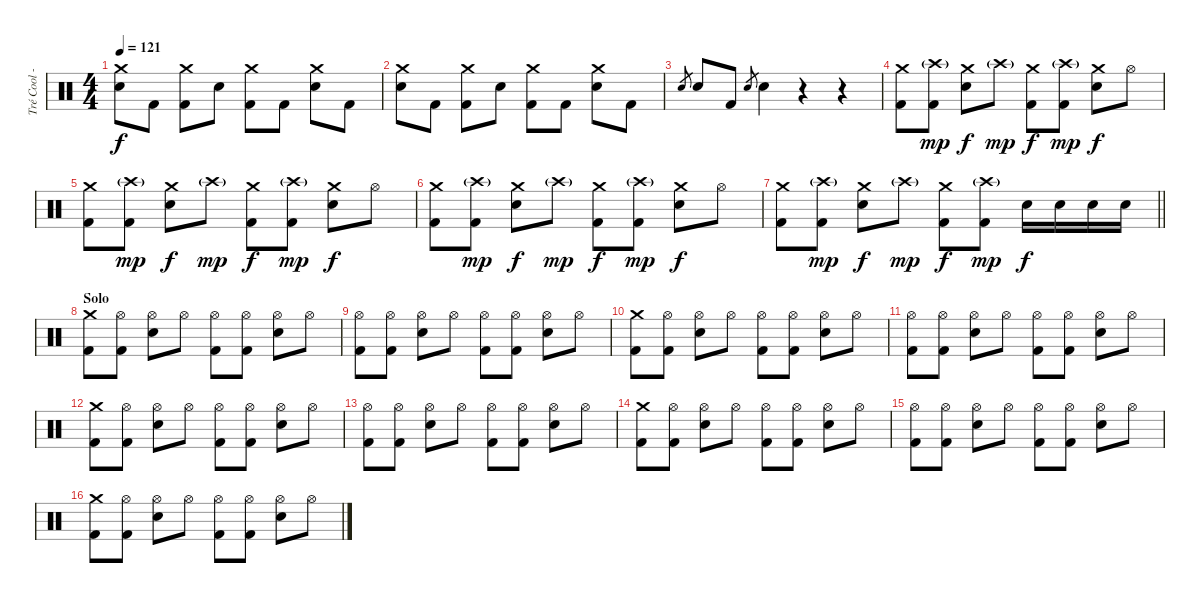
\track ("Tré Cool - Drums" "Tré Cool -") {instrument percussion}
\staff {score}
\articulation defaults
\ts (4 4)
\tempo 121
\clef neutral
\ks c
("Crash medium (hit)" "Electric Snare (hit)").8{dy f} "Kick (hit) 2".8 ("Crash medium (hit)" "Kick (hit) 2").8 "Electric Snare (hit)".8 ("Crash medium (hit)" "Kick (hit) 2").8 "Kick (hit) 2".8 ("Crash medium (hit)" "Electric Snare (hit)").8 "Kick (hit) 2".8 |
("Crash medium (hit)" "Electric Snare (hit)").8 "Kick (hit) 2".8 ("Crash medium (hit)" "Kick (hit) 2").8 "Electric Snare (hit)".8 ("Crash medium (hit)" "Kick (hit) 2").8 "Kick (hit) 2".8 ("Crash medium (hit)" "Electric Snare (hit)").8 "Kick (hit) 2".8 |
"Electric Snare (hit)".8{gr} "Electric Snare (hit)".8 "Kick (hit) 2".8 "Electric Snare (hit)".8{gr} "Electric Snare (hit)".4 r.4 r.4 |
("Crash medium (hit)" "Kick (hit) 2").8 ("Crash high (hit)"{g} "Kick (hit) 2").8{dy mp} ("Crash medium (hit)" "Electric Snare (hit)").8{dy f} "Crash high (hit)"{g}.8{dy mp} ("Crash medium (hit)" "Kick (hit) 2").8{dy f} ("Crash high (hit)"{g} "Kick (hit) 2").8{dy mp} ("Crash medium (hit)" "Electric Snare (hit)").8{dy f} "Hi-Hat (open)".8 |
("Crash medium (hit)" "Kick (hit) 2").8 ("Crash high (hit)"{g} "Kick (hit) 2").8{dy mp} ("Crash medium (hit)" "Electric Snare (hit)").8{dy f} "Crash high (hit)"{g}.8{dy mp} ("Crash medium (hit)" "Kick (hit) 2").8{dy f} ("Crash high (hit)"{g} "Kick (hit) 2").8{dy mp} ("Crash medium (hit)" "Electric Snare (hit)").8{dy f} "Hi-Hat (open)".8 |
("Crash medium (hit)" "Kick (hit) 2").8 ("Crash high (hit)"{g} "Kick (hit) 2").8{dy mp} ("Crash medium (hit)" "Electric Snare (hit)").8{dy f} "Crash high (hit)"{g}.8{dy mp} ("Crash medium (hit)" "Kick (hit) 2").8{dy f} ("Crash high (hit)"{g} "Kick (hit) 2").8{dy mp} ("Crash medium (hit)" "Electric Snare (hit)").8{dy f} "Hi-Hat (open)".8 |
\barLineRight lightlight
("Crash medium (hit)" "Kick (hit) 2").8 ("Crash high (hit)"{g} "Kick (hit) 2").8{dy mp} ("Crash medium (hit)" "Electric Snare (hit)").8{dy f} "Crash high (hit)"{g}.8{dy mp} ("Crash medium (hit)" "Kick (hit) 2").8{dy f} ("Crash high (hit)"{g} "Kick (hit) 2").8{dy mp} "Electric Snare (hit)".16{dy f} "Electric Snare (hit)".16 "Electric Snare (hit)".16 "Electric Snare (hit)".16 |
\section ("" "Solo")
("Crash medium (hit)" "Kick (hit) 2").8 ("Hi-Hat (open)" "Kick (hit) 2").8 ("Hi-Hat (open)" "Electric Snare (hit)").8 "Hi-Hat (open)".8 ("Hi-Hat (open)" "Kick (hit) 2").8 ("Hi-Hat (open)" "Kick (hit) 2").8 ("Hi-Hat (open)" "Electric Snare (hit)").8 "Hi-Hat (open)".8 |
("Hi-Hat (open)" "Kick (hit) 2").8 ("Hi-Hat (open)" "Kick (hit) 2").8 ("Hi-Hat (open)" "Electric Snare (hit)").8 "Hi-Hat (open)".8 ("Hi-Hat (open)" "Kick (hit) 2").8 ("Hi-Hat (open)" "Kick (hit) 2").8 ("Hi-Hat (open)" "Electric Snare (hit)").8 "Hi-Hat (open)".8 |
("Crash medium (hit)" "Kick (hit) 2").8 ("Hi-Hat (open)" "Kick (hit) 2").8 ("Hi-Hat (open)" "Electric Snare (hit)").8 "Hi-Hat (open)".8 ("Hi-Hat (open)" "Kick (hit) 2").8 ("Hi-Hat (open)" "Kick (hit) 2").8 ("Hi-Hat (open)" "Electric Snare (hit)").8 "Hi-Hat (open)".8 |
("Hi-Hat (open)" "Kick (hit) 2").8 ("Hi-Hat (open)" "Kick (hit) 2").8 ("Hi-Hat (open)" "Electric Snare (hit)").8 "Hi-Hat (open)".8 ("Hi-Hat (open)" "Kick (hit) 2").8 ("Hi-Hat (open)" "Kick (hit) 2").8 ("Hi-Hat (open)" "Electric Snare (hit)").8 "Hi-Hat (open)".8 |
("Crash medium (hit)" "Kick (hit) 2").8 ("Hi-Hat (open)" "Kick (hit) 2").8 ("Hi-Hat (open)" "Electric Snare (hit)").8 "Hi-Hat (open)".8 ("Hi-Hat (open)" "Kick (hit) 2").8 ("Hi-Hat (open)" "Kick (hit) 2").8 ("Hi-Hat (open)" "Electric Snare (hit)").8 "Hi-Hat (open)".8 |
("Hi-Hat (open)" "Kick (hit) 2").8 ("Hi-Hat (open)" "Kick (hit) 2").8 ("Hi-Hat (open)" "Electric Snare (hit)").8 "Hi-Hat (open)".8 ("Hi-Hat (open)" "Kick (hit) 2").8 ("Hi-Hat (open)" "Kick (hit) 2").8 ("Hi-Hat (open)" "Electric Snare (hit)").8 "Hi-Hat (open)".8 |
("Crash medium (hit)" "Kick (hit) 2").8 ("Hi-Hat (open)" "Kick (hit) 2").8 ("Hi-Hat (open)" "Electric Snare (hit)").8 "Hi-Hat (open)".8 ("Hi-Hat (open)" "Kick (hit) 2").8 ("Hi-Hat (open)" "Kick (hit) 2").8 ("Hi-Hat (open)" "Electric Snare (hit)").8 "Hi-Hat (open)".8 |
("Hi-Hat (open)" "Kick (hit) 2").8 ("Hi-Hat (open)" "Kick (hit) 2").8 ("Hi-Hat (open)" "Electric Snare (hit)").8 "Hi-Hat (open)".8 ("Hi-Hat (open)" "Kick (hit) 2").8 ("Hi-Hat (open)" "Kick (hit) 2").8 ("Hi-Hat (open)" "Electric Snare (hit)").8 "Hi-Hat (open)".8 |
("Crash medium (hit)" "Kick (hit) 2").8 ("Hi-Hat (open)" "Kick (hit) 2").8 ("Hi-Hat (open)" "Electric Snare (hit)").8 "Hi-Hat (open)".8 ("Hi-Hat (open)" "Kick (hit) 2").8 ("Hi-Hat (open)" "Kick (hit) 2").8 ("Hi-Hat (open)" "Electric Snare (hit)").8 "Hi-Hat (open)".8
